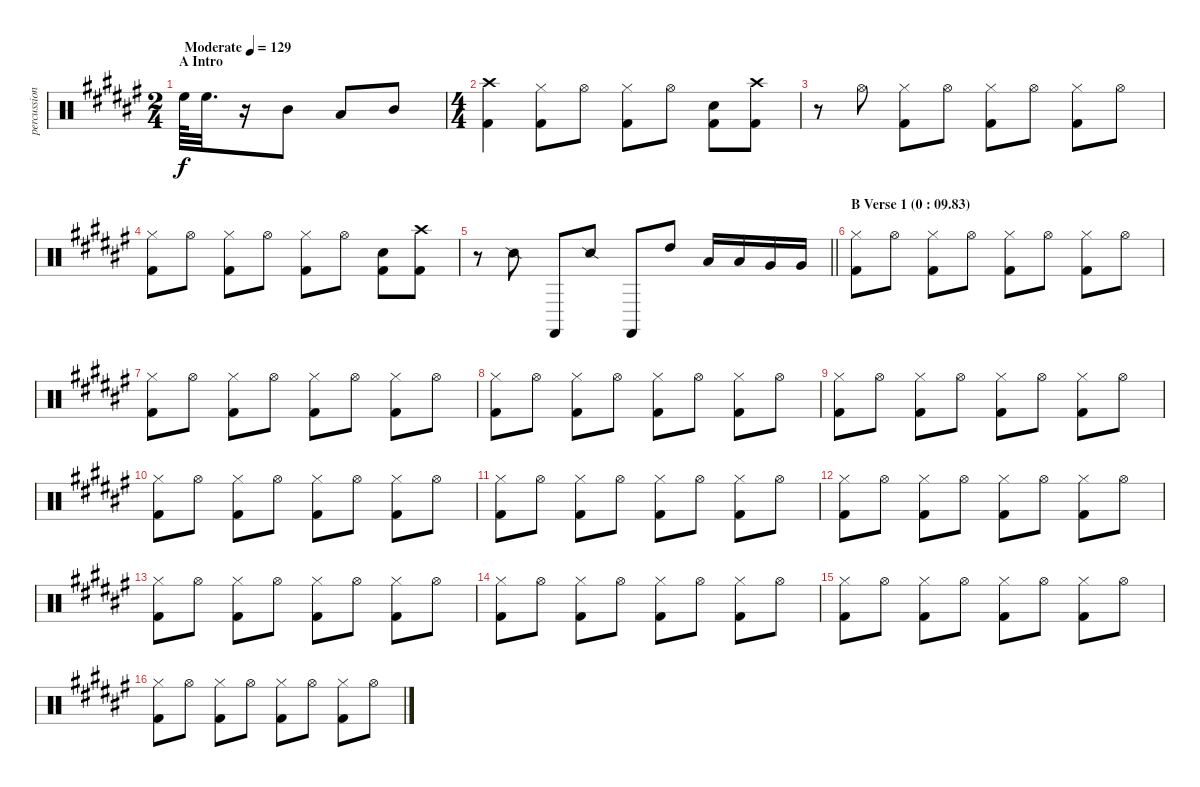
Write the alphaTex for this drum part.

\track ("percussion" "percussion") {instrument percussion}
\staff {score}
\articulation defaults
\ts (2 4)
\section ("" "A Intro")
\tempo (129 "Moderate")
\clef neutral
\ks f# "High Floor Tom (hit)".64{dy f} "High Floor Tom (hit)".32{d}
r.16 "Mid Tom (hit)".8 "Low Tom (hit)".8 "Mid Tom (hit)".8 |
\ts (4 4)
("Crash high (hit)" "Kick (hit) 2").4 ("Hi-Hat (closed)" "Kick (hit) 2").8 "Hi-Hat (open)".8 ("Hi-Hat (closed)" "Kick (hit) 2").8 "Hi-Hat (open)".8 ("Snare (hit) 2" "Kick (hit) 2").8 ("Crash high (hit)" "Kick (hit) 2").8 |
r.8 "Hi-Hat (open)".8 ("Hi-Hat (closed)" "Kick (hit) 2").8 "Hi-Hat (open)".8 ("Hi-Hat (closed)" "Kick (hit) 2").8 "Hi-Hat (open)".8 ("Hi-Hat (closed)" "Kick (hit) 2").8 "Hi-Hat (open)".8 |
("Hi-Hat (closed)" "Kick (hit) 2").8 "Hi-Hat (open)".8 ("Hi-Hat (closed)" "Kick (hit) 2").8 "Hi-Hat (open)".8 ("Hi-Hat (closed)" "Kick (hit) 2").8 "Hi-Hat (open)".8 ("Snare (hit) 2" "Kick (hit) 2").8 ("Crash high (hit)" "Kick (hit) 2").8 |
\barLineRight lightlight
r.8 "Snare (side stick) 2".8 "Castanets (hit)".8 "Snare (side stick) 2".8 "Castanets (hit)".8 "High Tom (hit)".8 "Low Tom (hit)".16 "Low Tom (hit)".16 "Very Low Tom (hit)".16 "Very Low Tom (hit)".16 |
\section ("" "B Verse 1 (0 : 09.83)")
("Hi-Hat (closed)" "Kick (hit) 2").8 "Hi-Hat (open)".8 ("Hi-Hat (closed)" "Kick (hit) 2").8 "Hi-Hat (open)".8 ("Hi-Hat (closed)" "Kick (hit) 2").8 "Hi-Hat (open)".8 ("Hi-Hat (closed)" "Kick (hit) 2").8 "Hi-Hat (open)".8 |
("Hi-Hat (closed)" "Kick (hit) 2").8 "Hi-Hat (open)".8 ("Hi-Hat (closed)" "Kick (hit) 2").8 "Hi-Hat (open)".8 ("Hi-Hat (closed)" "Kick (hit) 2").8 "Hi-Hat (open)".8 ("Hi-Hat (closed)" "Kick (hit) 2").8 "Hi-Hat (open)".8 |
("Hi-Hat (closed)" "Kick (hit) 2").8 "Hi-Hat (open)".8 ("Hi-Hat (closed)" "Kick (hit) 2").8 "Hi-Hat (open)".8 ("Hi-Hat (closed)" "Kick (hit) 2").8 "Hi-Hat (open)".8 ("Hi-Hat (closed)" "Kick (hit) 2").8 "Hi-Hat (open)".8 |
("Hi-Hat (closed)" "Kick (hit) 2").8 "Hi-Hat (open)".8 ("Hi-Hat (closed)" "Kick (hit) 2").8 "Hi-Hat (open)".8 ("Hi-Hat (closed)" "Kick (hit) 2").8 "Hi-Hat (open)".8 ("Hi-Hat (closed)" "Kick (hit) 2").8 "Hi-Hat (open)".8 |
("Hi-Hat (closed)" "Kick (hit) 2").8 "Hi-Hat (open)".8 ("Hi-Hat (closed)" "Kick (hit) 2").8 "Hi-Hat (open)".8 ("Hi-Hat (closed)" "Kick (hit) 2").8 "Hi-Hat (open)".8 ("Hi-Hat (closed)" "Kick (hit) 2").8 "Hi-Hat (open)".8 |
("Hi-Hat (closed)" "Kick (hit) 2").8 "Hi-Hat (open)".8 ("Hi-Hat (closed)" "Kick (hit) 2").8 "Hi-Hat (open)".8 ("Hi-Hat (closed)" "Kick (hit) 2").8 "Hi-Hat (open)".8 ("Hi-Hat (closed)" "Kick (hit) 2").8 "Hi-Hat (open)".8 |
("Hi-Hat (closed)" "Kick (hit) 2").8 "Hi-Hat (open)".8 ("Hi-Hat (closed)" "Kick (hit) 2").8 "Hi-Hat (open)".8 ("Hi-Hat (closed)" "Kick (hit) 2").8 "Hi-Hat (open)".8 ("Hi-Hat (closed)" "Kick (hit) 2").8 "Hi-Hat (open)".8 |
("Hi-Hat (closed)" "Kick (hit) 2").8 "Hi-Hat (open)".8 ("Hi-Hat (closed)" "Kick (hit) 2").8 "Hi-Hat (open)".8 ("Hi-Hat (closed)" "Kick (hit) 2").8 "Hi-Hat (open)".8 ("Hi-Hat (closed)" "Kick (hit) 2").8 "Hi-Hat (open)".8 |
("Hi-Hat (closed)" "Kick (hit) 2").8 "Hi-Hat (open)".8 ("Hi-Hat (closed)" "Kick (hit) 2").8 "Hi-Hat (open)".8 ("Hi-Hat (closed)" "Kick (hit) 2").8 "Hi-Hat (open)".8 ("Hi-Hat (closed)" "Kick (hit) 2").8 "Hi-Hat (open)".8 |
("Hi-Hat (closed)" "Kick (hit) 2").8 "Hi-Hat (open)".8 ("Hi-Hat (closed)" "Kick (hit) 2").8 "Hi-Hat (open)".8 ("Hi-Hat (closed)" "Kick (hit) 2").8 "Hi-Hat (open)".8 ("Hi-Hat (closed)" "Kick (hit) 2").8 "Hi-Hat (open)".8 |
("Hi-Hat (closed)" "Kick (hit) 2").8 "Hi-Hat (open)".8 ("Hi-Hat (closed)" "Kick (hit) 2").8 "Hi-Hat (open)".8 ("Hi-Hat (closed)" "Kick (hit) 2").8 "Hi-Hat (open)".8 ("Hi-Hat (closed)" "Kick (hit) 2").8 "Hi-Hat (open)".8
